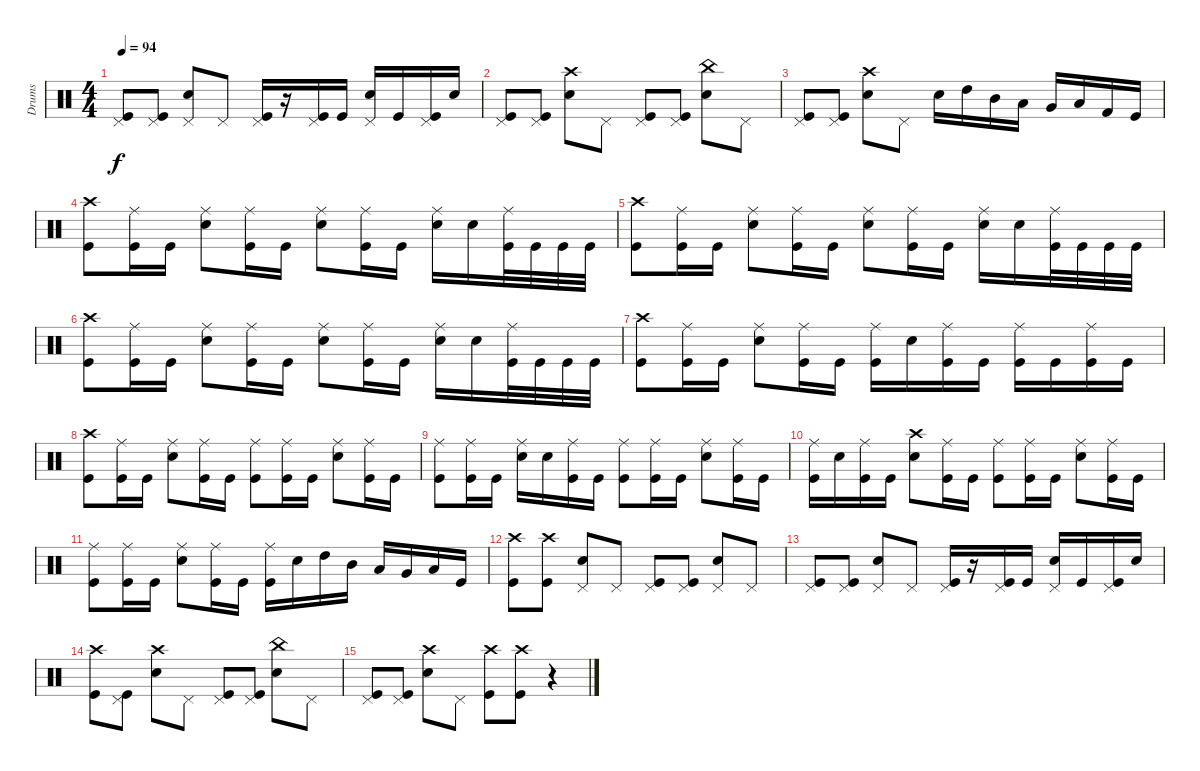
\track ("Drums" "Drums") {instrument percussion}
\staff {score}
\articulation defaults
\ts (4 4)
\tempo 94
\clef neutral
\ks c
("Pedal Hi-Hat (hit)" "Kick (hit)").8{dy f} ("Pedal Hi-Hat (hit)" "Kick (hit)").8 ("Pedal Hi-Hat (hit)" "Electric Snare (hit)").8 "Pedal Hi-Hat (hit)".8 ("Pedal Hi-Hat (hit)" "Kick (hit)").16 r.16 ("Pedal Hi-Hat (hit)" "Kick (hit)").16 "Kick (hit)".16 ("Pedal Hi-Hat (hit)" "Electric Snare (hit)").16 "Kick (hit)".16 ("Pedal Hi-Hat (hit)" "Kick (hit)").16 "Electric Snare (hit)".16 |
("Pedal Hi-Hat (hit)" "Kick (hit)").8 ("Pedal Hi-Hat (hit)" "Kick (hit)").8 ("Crash high (hit)" "Electric Snare (hit)").8 "Pedal Hi-Hat (hit)".8 ("Pedal Hi-Hat (hit)" "Kick (hit)").8 ("Pedal Hi-Hat (hit)" "Kick (hit)").8 ("China (hit)" "Electric Snare (hit)").8 "Pedal Hi-Hat (hit)".8 |
("Pedal Hi-Hat (hit)" "Kick (hit)").8 ("Pedal Hi-Hat (hit)" "Kick (hit)").8 ("Crash high (hit)" "Electric Snare (hit)").8 "Pedal Hi-Hat (hit)".8 "Electric Snare (hit)".16 "High Tom (hit)".16 "Mid Tom (hit)".16 "Low Tom (hit)".16 "Very Low Tom (hit)".16 "Low Floor Tom (hit)".16 "Kick (hit) 2".16 "Kick (hit)".16 |
("Crash high (hit)" "Kick (hit)").8 ("Ride (middle)" "Kick (hit)").16 "Kick (hit)".16 ("Ride (middle)" "Electric Snare (hit)").8 ("Ride (middle)" "Kick (hit)").16 "Kick (hit)".16 ("Ride (middle)" "Electric Snare (hit)").8 ("Ride (middle)" "Kick (hit)").16 "Kick (hit)".16 ("Ride (middle)" "Electric Snare (hit)").16 "Electric Snare (hit)".16 ("Ride (middle)" "Kick (hit)").32 "Kick (hit)".32 "Kick (hit)".32 "Kick (hit)".32 |
("Crash high (hit)" "Kick (hit)").8 ("Ride (middle)" "Kick (hit)").16 "Kick (hit)".16 ("Ride (middle)" "Electric Snare (hit)").8 ("Ride (middle)" "Kick (hit)").16 "Kick (hit)".16 ("Ride (middle)" "Electric Snare (hit)").8 ("Ride (middle)" "Kick (hit)").16 "Kick (hit)".16 ("Ride (middle)" "Electric Snare (hit)").16 "Electric Snare (hit)".16 ("Ride (middle)" "Kick (hit)").32 "Kick (hit)".32 "Kick (hit)".32 "Kick (hit)".32 |
("Crash high (hit)" "Kick (hit)").8 ("Ride (middle)" "Kick (hit)").16 "Kick (hit)".16 ("Ride (middle)" "Electric Snare (hit)").8 ("Ride (middle)" "Kick (hit)").16 "Kick (hit)".16 ("Ride (middle)" "Electric Snare (hit)").8 ("Ride (middle)" "Kick (hit)").16 "Kick (hit)".16 ("Ride (middle)" "Electric Snare (hit)").16 "Electric Snare (hit)".16 ("Ride (middle)" "Kick (hit)").32 "Kick (hit)".32 "Kick (hit)".32 "Kick (hit)".32 |
("Crash high (hit)" "Kick (hit)").8 ("Ride (middle)" "Kick (hit)").16 "Kick (hit)".16 ("Ride (middle)" "Electric Snare (hit)").8 ("Ride (middle)" "Kick (hit)").16 "Kick (hit)".16 ("Ride (middle)" "Kick (hit)").16 "Electric Snare (hit)".16 ("Ride (middle)" "Kick (hit)").16 "Kick (hit)".16 ("Ride (middle)" "Kick (hit)").16 "Kick (hit)".16 ("Ride (middle)" "Kick (hit)").16 "Kick (hit)".16 |
("Crash high (hit)" "Kick (hit)").8 ("Ride (middle)" "Kick (hit)").16 "Kick (hit)".16 ("Ride (middle)" "Electric Snare (hit)").8 ("Ride (middle)" "Kick (hit)").16 "Kick (hit)".16 ("Ride (middle)" "Kick (hit)").8 ("Ride (middle)" "Kick (hit)").16 "Kick (hit)".16 ("Ride (middle)" "Electric Snare (hit)").8 ("Ride (middle)" "Kick (hit)").16 "Kick (hit)".16 |
("Ride (middle)" "Kick (hit)").8 ("Ride (middle)" "Kick (hit)").16 "Kick (hit)".16 ("Ride (middle)" "Electric Snare (hit)").16 "Electric Snare (hit)".16 ("Ride (middle)" "Kick (hit)").16 "Kick (hit)".16 ("Ride (middle)" "Kick (hit)").8 ("Ride (middle)" "Kick (hit)").16 "Kick (hit)".16 ("Ride (middle)" "Electric Snare (hit)").8 ("Ride (middle)" "Kick (hit)").16 "Kick (hit)".16 |
("Ride (middle)" "Kick (hit)").16 "Electric Snare (hit)".16 ("Ride (middle)" "Kick (hit)").16 "Kick (hit)".16 ("Crash high (hit)" "Electric Snare (hit)").8 ("Ride (middle)" "Kick (hit)").16 "Kick (hit)".16 ("Ride (middle)" "Kick (hit)").8 ("Ride (middle)" "Kick (hit)").16 "Kick (hit)".16 ("Ride (middle)" "Electric Snare (hit)").8 ("Ride (middle)" "Kick (hit)").16 "Kick (hit)".16 |
("Ride (middle)" "Kick (hit)").8 ("Ride (middle)" "Kick (hit)").16 "Kick (hit)".16 ("Ride (middle)" "Electric Snare (hit)").8 ("Ride (middle)" "Kick (hit)").16 "Kick (hit)".16 ("Ride (middle)" "Kick (hit)").16 "Electric Snare (hit)".16 "High Tom (hit)".16 "Mid Tom (hit)".16 "Low Tom (hit)".16 "Very Low Tom (hit)".16 "Low Floor Tom (hit)".16 "Kick (hit)".16 |
("Crash high (hit)" "Kick (hit)").8 ("Crash high (hit)" "Kick (hit)").8 ("Pedal Hi-Hat (hit)" "Electric Snare (hit)").8 "Pedal Hi-Hat (hit)".8 ("Pedal Hi-Hat (hit)" "Kick (hit)").8 ("Pedal Hi-Hat (hit)" "Kick (hit)").8 ("Pedal Hi-Hat (hit)" "Electric Snare (hit)").8 "Pedal Hi-Hat (hit)".8 |
("Pedal Hi-Hat (hit)" "Kick (hit)").8 ("Pedal Hi-Hat (hit)" "Kick (hit)").8 ("Pedal Hi-Hat (hit)" "Electric Snare (hit)").8 "Pedal Hi-Hat (hit)".8 ("Pedal Hi-Hat (hit)" "Kick (hit)").16 r.16 ("Pedal Hi-Hat (hit)" "Kick (hit)").16 "Kick (hit)".16 ("Pedal Hi-Hat (hit)" "Electric Snare (hit)").16 "Kick (hit)".16 ("Pedal Hi-Hat (hit)" "Kick (hit)").16 "Electric Snare (hit)".16 |
("Crash high (hit)" "Kick (hit)").8 ("Pedal Hi-Hat (hit)" "Kick (hit)").8 ("Crash high (hit)" "Electric Snare (hit)").8 "Pedal Hi-Hat (hit)".8 ("Pedal Hi-Hat (hit)" "Kick (hit)").8 ("Pedal Hi-Hat (hit)" "Kick (hit)").8 ("China (hit)" "Electric Snare (hit)").8 "Pedal Hi-Hat (hit)".8 |
("Pedal Hi-Hat (hit)" "Kick (hit)").8 ("Pedal Hi-Hat (hit)" "Kick (hit)").8 ("Crash high (hit)" "Electric Snare (hit)").8 "Pedal Hi-Hat (hit)".8 ("Crash high (hit)" "Kick (hit)").8 ("Crash high (hit)" "Kick (hit)").8 r.4
